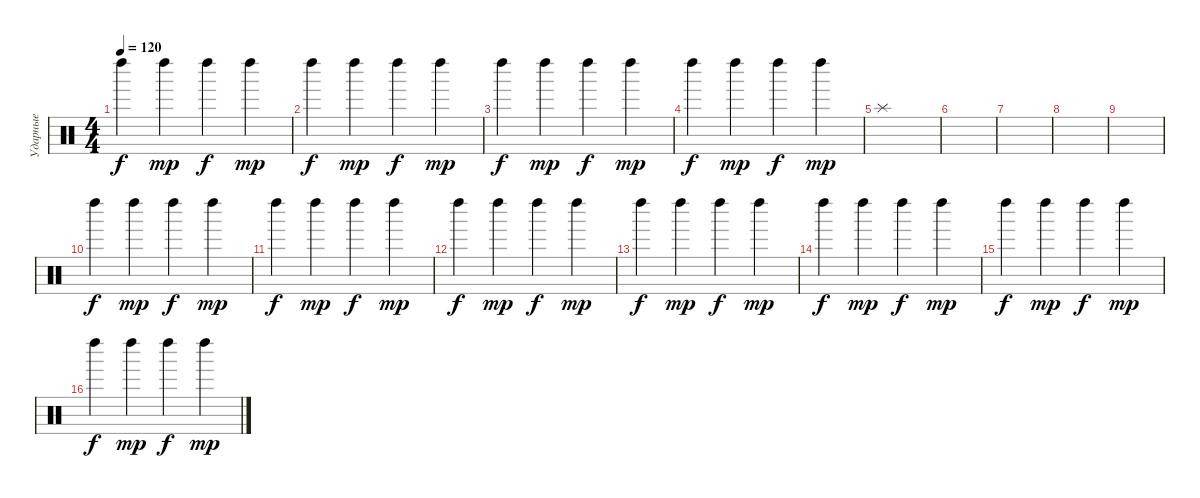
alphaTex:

\track ("Ударные" "Ударные") {instrument percussion}
\staff {score}
\articulation defaults
\ts (4 4)
\tempo 120
\clef neutral
\ks c "Left Maraca (hit)".4{dy f} "Left Maraca (hit)".4{dy mp} "Left Maraca (hit)".4{dy f} "Left Maraca (hit)".4{dy mp}
|
"Left Maraca (hit)".4{dy f} "Left Maraca (hit)".4{dy mp} "Left Maraca (hit)".4{dy f} "Left Maraca (hit)".4{dy mp} |
"Left Maraca (hit)".4{dy f} "Left Maraca (hit)".4{dy mp} "Left Maraca (hit)".4{dy f} "Left Maraca (hit)".4{dy mp} |
"Left Maraca (hit)".4{dy f} "Left Maraca (hit)".4{dy mp} "Left Maraca (hit)".4{dy f} "Left Maraca (hit)".4{dy mp} |
"Splash (hit)".1 |
|
|
|
|
"Left Maraca (hit)".4{dy f} "Left Maraca (hit)".4{dy mp} "Left Maraca (hit)".4{dy f} "Left Maraca (hit)".4{dy mp} |
"Left Maraca (hit)".4{dy f} "Left Maraca (hit)".4{dy mp} "Left Maraca (hit)".4{dy f} "Left Maraca (hit)".4{dy mp} |
"Left Maraca (hit)".4{dy f} "Left Maraca (hit)".4{dy mp} "Left Maraca (hit)".4{dy f} "Left Maraca (hit)".4{dy mp} |
"Left Maraca (hit)".4{dy f} "Left Maraca (hit)".4{dy mp} "Left Maraca (hit)".4{dy f} "Left Maraca (hit)".4{dy mp} |
"Left Maraca (hit)".4{dy f} "Left Maraca (hit)".4{dy mp} "Left Maraca (hit)".4{dy f} "Left Maraca (hit)".4{dy mp} |
"Left Maraca (hit)".4{dy f} "Left Maraca (hit)".4{dy mp} "Left Maraca (hit)".4{dy f} "Left Maraca (hit)".4{dy mp} |
"Left Maraca (hit)".4{dy f} "Left Maraca (hit)".4{dy mp} "Left Maraca (hit)".4{dy f} "Left Maraca (hit)".4{dy mp}
